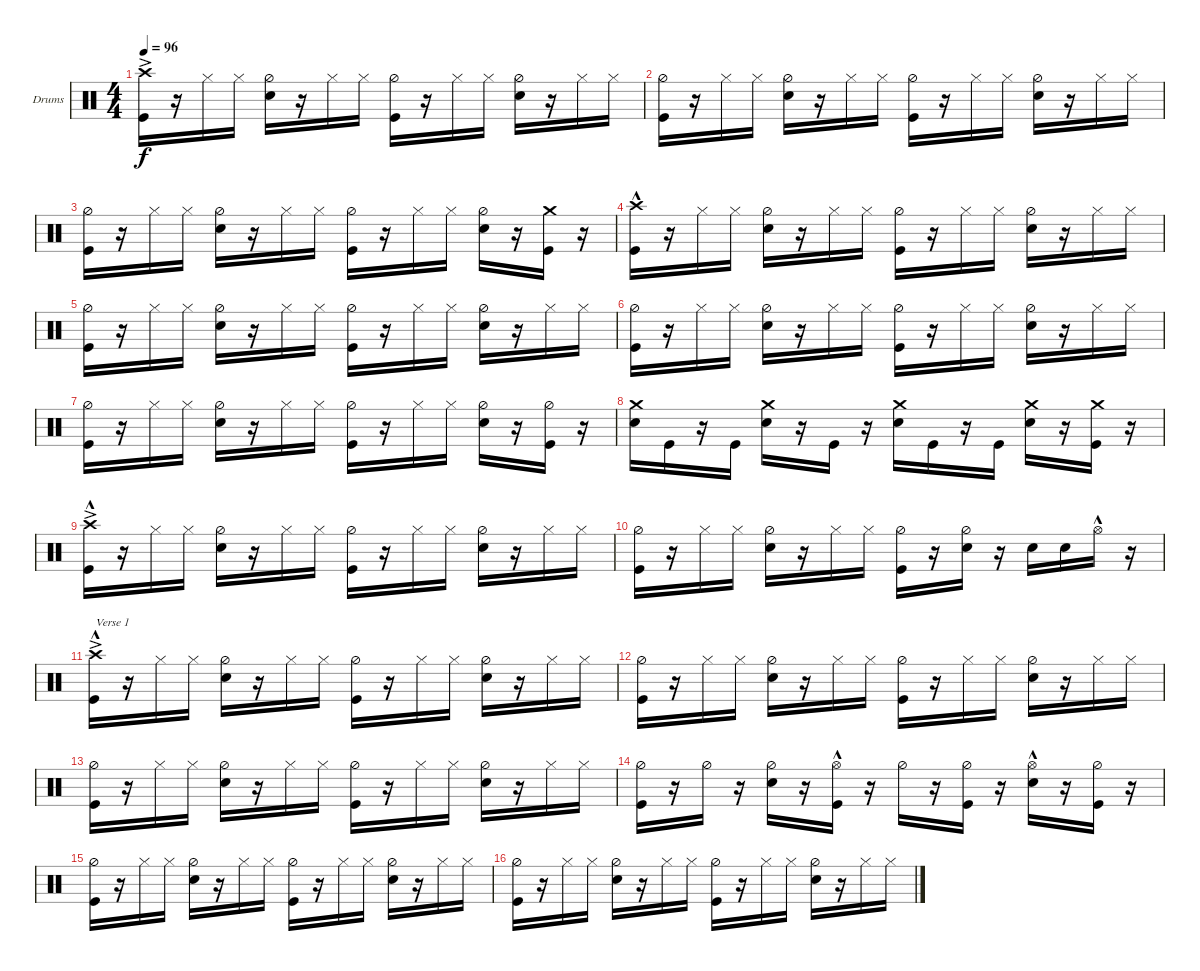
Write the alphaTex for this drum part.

\defaultSystemsLayout 4
\bracketExtendMode groupsimilarinstruments
\firstSystemTrackNameOrientation horizontal
\otherSystemsTrackNameOrientation horizontal
\track ("Stefan Schwarzmann" "Drums") {instrument percussion}
\staff {score}
\articulation defaults
\ts (4 4)
\tempo 96
\clef neutral
\ks c
("Kick (hit)"{ac} "Crash high (hit)"{ac}).16{dy f} r.16 "Hi-Hat (closed)".16 "Hi-Hat (closed)".16 ("Snare (hit) 2" "Hi-Hat (half)").16 r.16 "Hi-Hat (closed)".16 "Hi-Hat (closed)".16 ("Kick (hit)" "Hi-Hat (half)").16 r.16 "Hi-Hat (closed)".16 "Hi-Hat (closed)".16 ("Snare (hit) 2" "Hi-Hat (half)").16 r.16 "Hi-Hat (closed)".16 "Hi-Hat (closed)".16 |
("Kick (hit)" "Hi-Hat (half)").16 r.16 "Hi-Hat (closed)".16 "Hi-Hat (closed)".16 ("Snare (hit) 2" "Hi-Hat (half)").16 r.16 "Hi-Hat (closed)".16 "Hi-Hat (closed)".16 ("Kick (hit)" "Hi-Hat (half)").16 r.16 "Hi-Hat (closed)".16 "Hi-Hat (closed)".16 ("Snare (hit) 2" "Hi-Hat (half)").16 r.16 "Hi-Hat (closed)".16 "Hi-Hat (closed)".16 |
("Kick (hit)" "Hi-Hat (half)").16 r.16 "Hi-Hat (closed)".16 "Hi-Hat (closed)".16 ("Snare (hit) 2" "Hi-Hat (half)").16 r.16 "Hi-Hat (closed)".16 "Hi-Hat (closed)".16 ("Kick (hit)" "Hi-Hat (half)").16 r.16 "Hi-Hat (closed)".16 "Hi-Hat (closed)".16 ("Snare (hit) 2" "Hi-Hat (half)").16 r.16 ("Crash medium (hit)" "Kick (hit)").16 r.16 |
("Kick (hit)" "Crash high (hit)"{hac}).16 r.16 "Hi-Hat (closed)".16 "Hi-Hat (closed)".16 ("Snare (hit) 2" "Hi-Hat (half)").16 r.16 "Hi-Hat (closed)".16 "Hi-Hat (closed)".16 ("Kick (hit)" "Hi-Hat (half)").16 r.16 "Hi-Hat (closed)".16 "Hi-Hat (closed)".16 ("Snare (hit) 2" "Hi-Hat (half)").16 r.16 "Hi-Hat (closed)".16 "Hi-Hat (closed)".16 |
("Kick (hit)" "Hi-Hat (half)").16 r.16 "Hi-Hat (closed)".16 "Hi-Hat (closed)".16 ("Snare (hit) 2" "Hi-Hat (half)").16 r.16 "Hi-Hat (closed)".16 "Hi-Hat (closed)".16 ("Kick (hit)" "Hi-Hat (half)").16 r.16 "Hi-Hat (closed)".16 "Hi-Hat (closed)".16 ("Snare (hit) 2" "Hi-Hat (half)").16 r.16 "Hi-Hat (closed)".16 "Hi-Hat (closed)".16 |
("Kick (hit)" "Hi-Hat (half)").16 r.16 "Hi-Hat (closed)".16 "Hi-Hat (closed)".16 ("Snare (hit) 2" "Hi-Hat (half)").16 r.16 "Hi-Hat (closed)".16 "Hi-Hat (closed)".16 ("Kick (hit)" "Hi-Hat (half)").16 r.16 "Hi-Hat (closed)".16 "Hi-Hat (closed)".16 ("Snare (hit) 2" "Hi-Hat (half)").16 r.16 "Hi-Hat (closed)".16 "Hi-Hat (closed)".16 |
("Kick (hit)" "Hi-Hat (half)").16 r.16 "Hi-Hat (closed)".16 "Hi-Hat (closed)".16 ("Snare (hit) 2" "Hi-Hat (half)").16 r.16 "Hi-Hat (closed)".16 "Hi-Hat (closed)".16 ("Kick (hit)" "Hi-Hat (half)").16 r.16 "Hi-Hat (closed)".16 "Hi-Hat (closed)".16 ("Snare (hit) 2" "Hi-Hat (half)").16 r.16 ("Kick (hit)" "Hi-Hat (half)").16 r.16 |
("Snare (hit) 2" "Crash medium (hit)").16 "Kick (hit)".16 r.16 "Kick (hit)".16 ("Snare (hit) 2" "Crash medium (hit)").16 r.16 "Kick (hit)".16 r.16 ("Snare (hit) 2" "Crash medium (hit)").16 "Kick (hit)".16 r.16 "Kick (hit)".16 ("Snare (hit) 2" "Crash medium (hit)").16 r.16 ("Kick (hit)" "Crash medium (hit)").16 r.16 |
("Kick (hit)"{ac} "Crash high (hit)"{hac}).16 r.16 "Hi-Hat (closed)".16 "Hi-Hat (closed)".16 ("Snare (hit) 2" "Hi-Hat (half)").16 r.16 "Hi-Hat (closed)".16 "Hi-Hat (closed)".16 ("Kick (hit)" "Hi-Hat (half)").16 r.16 "Hi-Hat (closed)".16 "Hi-Hat (closed)".16 ("Snare (hit) 2" "Hi-Hat (half)").16 r.16 "Hi-Hat (closed)".16 "Hi-Hat (closed)".16 |
("Kick (hit)" "Hi-Hat (half)").16 r.16 "Hi-Hat (closed)".16 "Hi-Hat (closed)".16 ("Snare (hit) 2" "Hi-Hat (half)").16 r.16 "Hi-Hat (closed)".16 "Hi-Hat (closed)".16 ("Kick (hit)" "Hi-Hat (half)").16 r.16 ("Snare (hit) 2" "Hi-Hat (half)").16 r.16 "Snare (hit) 2".16 "Snare (hit) 2".16 "Hi-Hat (open)"{hac}.16 r.16 |
("Kick (hit)"{ac} "Crash high (hit)"{hac}).16{txt "Verse 1"} r.16 "Hi-Hat (closed)".16 "Hi-Hat (closed)".16 ("Snare (hit) 2" "Hi-Hat (half)").16 r.16 "Hi-Hat (closed)".16 "Hi-Hat (closed)".16 ("Kick (hit)" "Hi-Hat (half)").16 r.16 "Hi-Hat (closed)".16 "Hi-Hat (closed)".16 ("Snare (hit) 2" "Hi-Hat (half)").16 r.16 "Hi-Hat (closed)".16 "Hi-Hat (closed)".16 |
("Kick (hit)" "Hi-Hat (half)").16 r.16 "Hi-Hat (closed)".16 "Hi-Hat (closed)".16 ("Snare (hit) 2" "Hi-Hat (half)").16 r.16 "Hi-Hat (closed)".16 "Hi-Hat (closed)".16 ("Kick (hit)" "Hi-Hat (half)").16 r.16 "Hi-Hat (closed)".16 "Hi-Hat (closed)".16 ("Snare (hit) 2" "Hi-Hat (half)").16 r.16 "Hi-Hat (closed)".16 "Hi-Hat (closed)".16 |
("Kick (hit)" "Hi-Hat (half)").16 r.16 "Hi-Hat (closed)".16 "Hi-Hat (closed)".16 ("Snare (hit) 2" "Hi-Hat (half)").16 r.16 "Hi-Hat (closed)".16 "Hi-Hat (closed)".16 ("Kick (hit)" "Hi-Hat (half)").16 r.16 "Hi-Hat (closed)".16 "Hi-Hat (closed)".16 ("Snare (hit) 2" "Hi-Hat (half)").16 r.16 "Hi-Hat (closed)".16 "Hi-Hat (closed)".16 |
("Kick (hit)" "Hi-Hat (half)").16 r.16 "Hi-Hat (half)".16 r.16 ("Snare (hit) 2" "Hi-Hat (half)").16 r.16 ("Kick (hit)" "Hi-Hat (open)"{hac}).16 r.16 "Hi-Hat (half)".16 r.16 ("Hi-Hat (half)" "Kick (hit)").16 r.16 ("Snare (hit) 2" "Hi-Hat (open)"{hac}).16 r.16 ("Hi-Hat (half)" "Kick (hit)").16 r.16 |
("Kick (hit)" "Hi-Hat (half)").16 r.16 "Hi-Hat (closed)".16 "Hi-Hat (closed)".16 ("Snare (hit) 2" "Hi-Hat (half)").16 r.16 "Hi-Hat (closed)".16 "Hi-Hat (closed)".16 ("Kick (hit)" "Hi-Hat (half)").16 r.16 "Hi-Hat (closed)".16 "Hi-Hat (closed)".16 ("Snare (hit) 2" "Hi-Hat (half)").16 r.16 "Hi-Hat (closed)".16 "Hi-Hat (closed)".16 |
("Kick (hit)" "Hi-Hat (half)").16 r.16 "Hi-Hat (closed)".16 "Hi-Hat (closed)".16 ("Snare (hit) 2" "Hi-Hat (half)").16 r.16 "Hi-Hat (closed)".16 "Hi-Hat (closed)".16 ("Kick (hit)" "Hi-Hat (half)").16 r.16 "Hi-Hat (closed)".16 "Hi-Hat (closed)".16 ("Snare (hit) 2" "Hi-Hat (half)").16 r.16 "Hi-Hat (closed)".16 "Hi-Hat (closed)".16
